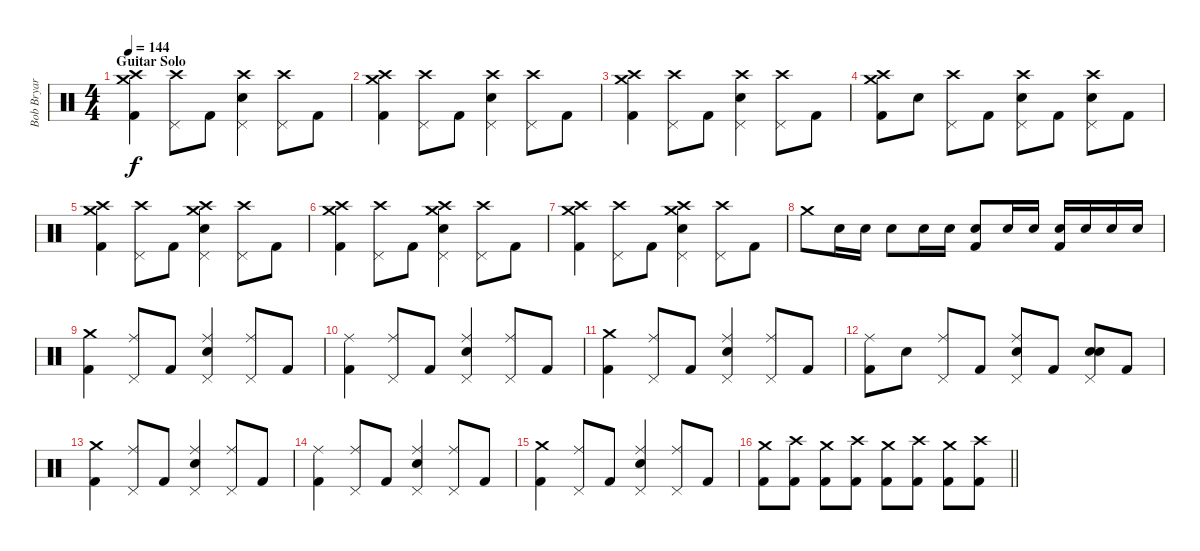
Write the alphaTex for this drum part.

\track ("Bob Bryar" "Bob Bryar") {instrument percussion}
\staff {score}
\articulation defaults
\ts (4 4)
\section ("" "Guitar Solo")
\tempo 144
\clef neutral
\ks c
("Crash high (hit)" "Crash medium (hit)" "Kick (hit) 2").4{dy f} ("Crash high (hit)" "Pedal Hi-Hat (hit)").8 "Kick (hit) 2".8 ("Crash high (hit)" "Snare (hit) 2" "Pedal Hi-Hat (hit)").4 ("Crash high (hit)" "Pedal Hi-Hat (hit)").8 "Kick (hit) 2".8 |
("Crash high (hit)" "Crash medium (hit)" "Kick (hit) 2").4 ("Crash high (hit)" "Pedal Hi-Hat (hit)").8 "Kick (hit) 2".8 ("Crash high (hit)" "Snare (hit) 2" "Pedal Hi-Hat (hit)").4 ("Crash high (hit)" "Pedal Hi-Hat (hit)").8 "Kick (hit) 2".8 |
("Crash high (hit)" "Crash medium (hit)" "Kick (hit) 2").4 ("Crash high (hit)" "Pedal Hi-Hat (hit)").8 "Kick (hit) 2".8 ("Crash high (hit)" "Snare (hit) 2" "Pedal Hi-Hat (hit)").4 ("Crash high (hit)" "Pedal Hi-Hat (hit)").8 "Kick (hit) 2".8 |
("Crash high (hit)" "Crash medium (hit)" "Kick (hit) 2").8 "Snare (hit) 2".8 ("Crash high (hit)" "Pedal Hi-Hat (hit)").8 "Kick (hit) 2".8 ("Crash high (hit)" "Snare (hit) 2" "Pedal Hi-Hat (hit)").8 "Kick (hit) 2".8 ("Crash high (hit)" "Snare (hit) 2" "Pedal Hi-Hat (hit)").8 "Kick (hit) 2".8 |
("Crash high (hit)" "Crash medium (hit)" "Kick (hit) 2").4 ("Crash high (hit)" "Pedal Hi-Hat (hit)").8 "Kick (hit) 2".8 ("Crash high (hit)" "Snare (hit) 2" "Pedal Hi-Hat (hit)" "Crash medium (hit)").4 ("Crash high (hit)" "Pedal Hi-Hat (hit)").8 "Kick (hit) 2".8 |
("Crash high (hit)" "Crash medium (hit)" "Kick (hit) 2").4 ("Crash high (hit)" "Pedal Hi-Hat (hit)").8 "Kick (hit) 2".8 ("Crash high (hit)" "Snare (hit) 2" "Pedal Hi-Hat (hit)" "Crash medium (hit)").4 ("Crash high (hit)" "Pedal Hi-Hat (hit)").8 "Kick (hit) 2".8 |
("Crash high (hit)" "Crash medium (hit)" "Kick (hit) 2").4 ("Crash high (hit)" "Pedal Hi-Hat (hit)").8 "Kick (hit) 2".8 ("Crash high (hit)" "Snare (hit) 2" "Pedal Hi-Hat (hit)" "Crash medium (hit)").4 ("Crash high (hit)" "Pedal Hi-Hat (hit)").8 "Kick (hit) 2".8 |
"Crash medium (hit)".8 "Snare (hit) 2".16 "Snare (hit) 2".16 "Snare (hit) 2".8 "Snare (hit) 2".16 "Snare (hit) 2".16 ("Snare (hit) 2" "Kick (hit) 2").8 "Snare (hit) 2".16 "Snare (hit) 2".16 ("Snare (hit) 2" "Kick (hit) 2").16 "Snare (hit) 2".16 "Snare (hit) 2".16 "Snare (hit) 2".16 |
("Crash medium (hit)" "Kick (hit) 2").4 ("Ride (middle)" "Pedal Hi-Hat (hit)").8 "Kick (hit) 2".8 ("Ride (middle)" "Snare (hit) 2" "Pedal Hi-Hat (hit)").4 ("Ride (middle)" "Pedal Hi-Hat (hit)").8 "Kick (hit) 2".8 |
("Ride (middle)" "Kick (hit) 2").4 ("Ride (middle)" "Pedal Hi-Hat (hit)").8 "Kick (hit) 2".8 ("Ride (middle)" "Snare (hit) 2" "Pedal Hi-Hat (hit)").4 ("Ride (middle)" "Pedal Hi-Hat (hit)").8 "Kick (hit) 2".8 |
("Crash medium (hit)" "Kick (hit) 2").4 ("Ride (middle)" "Pedal Hi-Hat (hit)").8 "Kick (hit) 2".8 ("Ride (middle)" "Snare (hit) 2" "Pedal Hi-Hat (hit)").4 ("Ride (middle)" "Pedal Hi-Hat (hit)").8 "Kick (hit) 2".8 |
("Ride (middle)" "Kick (hit) 2").8 "Snare (hit) 2".8 ("Ride (middle)" "Pedal Hi-Hat (hit)").8 "Kick (hit) 2".8 ("Ride (middle)" "Snare (hit) 2" "Pedal Hi-Hat (hit)").8 "Kick (hit) 2".8 ("Snare (hit) 2" "Snare (hit) 2" "Pedal Hi-Hat (hit)").8 "Kick (hit) 2".8 |
("Crash medium (hit)" "Kick (hit) 2").4 ("Ride (middle)" "Pedal Hi-Hat (hit)").8 "Kick (hit) 2".8 ("Ride (middle)" "Snare (hit) 2" "Pedal Hi-Hat (hit)").4 ("Ride (middle)" "Pedal Hi-Hat (hit)").8 "Kick (hit) 2".8 |
("Ride (middle)" "Kick (hit) 2").4 ("Ride (middle)" "Pedal Hi-Hat (hit)").8 "Kick (hit) 2".8 ("Ride (middle)" "Snare (hit) 2" "Pedal Hi-Hat (hit)").4 ("Ride (middle)" "Pedal Hi-Hat (hit)").8 "Kick (hit) 2".8 |
("Crash medium (hit)" "Kick (hit) 2").4 ("Ride (middle)" "Pedal Hi-Hat (hit)").8 "Kick (hit) 2".8 ("Ride (middle)" "Snare (hit) 2" "Pedal Hi-Hat (hit)").4 ("Ride (middle)" "Pedal Hi-Hat (hit)").8 "Kick (hit) 2".8 |
\barLineRight lightlight
("Crash medium (hit)" "Kick (hit) 2").8 ("Crash high (hit)" "Kick (hit) 2").8 ("Crash medium (hit)" "Kick (hit) 2").8 ("Crash high (hit)" "Kick (hit) 2").8 ("Crash medium (hit)" "Kick (hit) 2").8 ("Crash high (hit)" "Kick (hit) 2").8 ("Crash medium (hit)" "Kick (hit) 2").8 ("Crash high (hit)" "Kick (hit) 2").8
